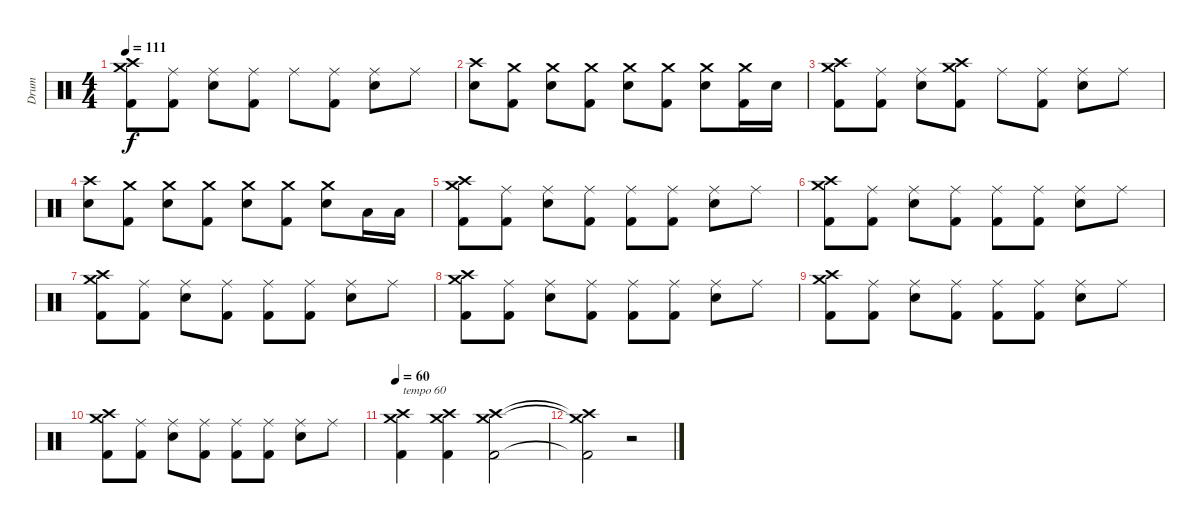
\track ("Drum" "Drum") {instrument percussion}
\staff {score}
\articulation defaults
\ts (4 4)
\tempo 111
\clef neutral
\ks c
("Crash high (hit)" "Crash medium (hit)" "Kick (hit) 2").8{dy f} ("Ride (middle)" "Kick (hit) 2").8 ("Ride (middle)" "Snare (hit) 2").8 ("Ride (middle)" "Kick (hit) 2").8 "Ride (middle)".8 ("Ride (middle)" "Kick (hit) 2").8 ("Ride (middle)" "Snare (hit) 2").8 "Ride (middle)".8 |
("Crash high (hit)" "Snare (hit) 2").8 ("Crash medium (hit)" "Kick (hit) 2").8 ("Crash medium (hit)" "Snare (hit) 2").8 ("Crash medium (hit)" "Kick (hit) 2").8 ("Crash medium (hit)" "Snare (hit) 2").8 ("Crash medium (hit)" "Kick (hit) 2").8 ("Crash medium (hit)" "Snare (hit) 2").8 ("Crash medium (hit)" "Kick (hit) 2").16 "Snare (hit) 2".16 |
("Crash high (hit)" "Crash medium (hit)" "Kick (hit) 2").8 ("Ride (middle)" "Kick (hit) 2").8 ("Ride (middle)" "Snare (hit) 2").8 ("Crash high (hit)" "Crash medium (hit)" "Kick (hit) 2").8 "Ride (middle)".8 ("Ride (middle)" "Kick (hit) 2").8 ("Ride (middle)" "Snare (hit) 2").8 "Ride (middle)".8 |
("Crash high (hit)" "Snare (hit) 2").8 ("Crash medium (hit)" "Kick (hit) 2").8 ("Crash medium (hit)" "Snare (hit) 2").8 ("Crash medium (hit)" "Kick (hit) 2").8 ("Crash medium (hit)" "Snare (hit) 2").8 ("Crash medium (hit)" "Kick (hit) 2").8 ("Crash medium (hit)" "Snare (hit) 2").8 "Low Floor Tom (hit)".16 "Low Floor Tom (hit)".16 |
("Crash high (hit)" "Crash medium (hit)" "Kick (hit) 2").8 ("Ride (middle)" "Kick (hit) 2").8 ("Ride (middle)" "Snare (hit) 2").8 ("Ride (middle)" "Kick (hit) 2").8 ("Ride (middle)" "Kick (hit) 2").8 ("Ride (middle)" "Kick (hit) 2").8 ("Ride (middle)" "Snare (hit) 2").8 "Ride (middle)".8 |
("Crash high (hit)" "Crash medium (hit)" "Kick (hit) 2").8 ("Ride (middle)" "Kick (hit) 2").8 ("Ride (middle)" "Snare (hit) 2").8 ("Ride (middle)" "Kick (hit) 2").8 ("Ride (middle)" "Kick (hit) 2").8 ("Ride (middle)" "Kick (hit) 2").8 ("Ride (middle)" "Snare (hit) 2").8 "Ride (middle)".8 |
("Crash high (hit)" "Crash medium (hit)" "Kick (hit) 2").8 ("Ride (middle)" "Kick (hit) 2").8 ("Ride (middle)" "Snare (hit) 2").8 ("Ride (middle)" "Kick (hit) 2").8 ("Ride (middle)" "Kick (hit) 2").8 ("Ride (middle)" "Kick (hit) 2").8 ("Ride (middle)" "Snare (hit) 2").8 "Ride (middle)".8 |
("Crash high (hit)" "Crash medium (hit)" "Kick (hit) 2").8 ("Ride (middle)" "Kick (hit) 2").8 ("Ride (middle)" "Snare (hit) 2").8 ("Ride (middle)" "Kick (hit) 2").8 ("Ride (middle)" "Kick (hit) 2").8 ("Ride (middle)" "Kick (hit) 2").8 ("Ride (middle)" "Snare (hit) 2").8 "Ride (middle)".8 |
("Crash high (hit)" "Crash medium (hit)" "Kick (hit) 2").8 ("Ride (middle)" "Kick (hit) 2").8 ("Ride (middle)" "Snare (hit) 2").8 ("Ride (middle)" "Kick (hit) 2").8 ("Ride (middle)" "Kick (hit) 2").8 ("Ride (middle)" "Kick (hit) 2").8 ("Ride (middle)" "Snare (hit) 2").8 "Ride (middle)".8 |
("Crash high (hit)" "Crash medium (hit)" "Kick (hit) 2").8 ("Ride (middle)" "Kick (hit) 2").8 ("Ride (middle)" "Snare (hit) 2").8 ("Ride (middle)" "Kick (hit) 2").8 ("Ride (middle)" "Kick (hit) 2").8 ("Ride (middle)" "Kick (hit) 2").8 ("Ride (middle)" "Snare (hit) 2").8 "Ride (middle)".8 |
\tempo 60
("Crash high (hit)" "Crash medium (hit)" "Kick (hit) 2").4{txt "tempo 60"} ("Crash high (hit)" "Crash medium (hit)" "Kick (hit) 2").4 ("Crash high (hit)" "Crash medium (hit)" "Kick (hit) 2").2 |
("Crash high (hit)"{t} "Crash medium (hit)"{t} "Kick (hit) 2"{t}).2 r.2
